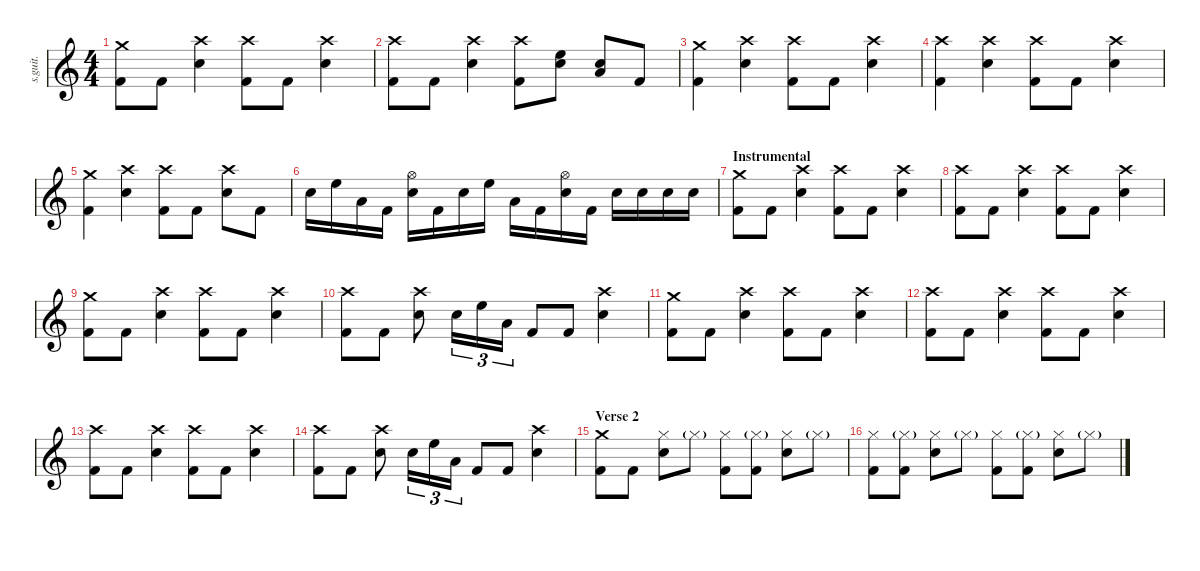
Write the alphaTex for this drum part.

\defaultSystemsLayout 4
\hideDynamics
\bracketExtendMode nobrackets
\track ("Travis" "s.guit.") {instrument percussion}
\staff {score}
\articulation defaults
\ts (4 4)
\tempo (149 hide)
\clef g2
\ks c
("Crash medium (hit)" "Kick (hit) 2").8{lyrics (0 "") lyrics (1 "") lyrics (2 "") lyrics (3 "") lyrics (4 "") dy f} "Kick (hit) 2".8{lyrics (0 "") lyrics (1 "") lyrics (2 "") lyrics (3 "") lyrics (4 "")} ("Crash high (hit)" "Snare (hit) 2").4{lyrics (0 "") lyrics (1 "") lyrics (2 "") lyrics (3 "") lyrics (4 "")} ("Crash high (hit)" "Kick (hit) 2").8{lyrics (0 "") lyrics (1 "") lyrics (2 "") lyrics (3 "") lyrics (4 "")} "Kick (hit) 2".8{lyrics (0 "") lyrics (1 "") lyrics (2 "") lyrics (3 "") lyrics (4 "")} ("Crash high (hit)" "Snare (hit) 2").4{lyrics (0 "") lyrics (1 "") lyrics (2 "") lyrics (3 "") lyrics (4 "")} |
("Crash high (hit)" "Kick (hit) 2").8{lyrics (0 "") lyrics (1 "") lyrics (2 "") lyrics (3 "") lyrics (4 "")} "Kick (hit) 2".8{lyrics (0 "") lyrics (1 "") lyrics (2 "") lyrics (3 "") lyrics (4 "")} ("Crash high (hit)" "Snare (hit) 2").4{lyrics (0 "") lyrics (1 "") lyrics (2 "") lyrics (3 "") lyrics (4 "")} ("Crash high (hit)" "Kick (hit) 2").8{lyrics (0 "") lyrics (1 "") lyrics (2 "") lyrics (3 "") lyrics (4 "")} ("High Floor Tom (hit)" "Snare (hit) 2").8{lyrics (0 "") lyrics (1 "") lyrics (2 "") lyrics (3 "") lyrics (4 "")} ("Snare (hit) 2" "Low Tom (hit)").8{lyrics (0 "") lyrics (1 "") lyrics (2 "") lyrics (3 "") lyrics (4 "")} "Kick (hit) 2".8{lyrics (0 "") lyrics (1 "") lyrics (2 "") lyrics (3 "") lyrics (4 "")} |
("Crash medium (hit)" "Kick (hit) 2").4{lyrics (0 "") lyrics (1 "") lyrics (2 "") lyrics (3 "") lyrics (4 "")} ("Crash high (hit)" "Snare (hit) 2").4{lyrics (0 "") lyrics (1 "") lyrics (2 "") lyrics (3 "") lyrics (4 "")} ("Crash high (hit)" "Kick (hit) 2").8{lyrics (0 "") lyrics (1 "") lyrics (2 "") lyrics (3 "") lyrics (4 "")} "Kick (hit) 2".8{lyrics (0 "") lyrics (1 "") lyrics (2 "") lyrics (3 "") lyrics (4 "")} ("Crash high (hit)" "Snare (hit) 2").4{lyrics (0 "") lyrics (1 "") lyrics (2 "") lyrics (3 "") lyrics (4 "")} |
("Crash high (hit)" "Kick (hit) 2").4{lyrics (0 "") lyrics (1 "") lyrics (2 "") lyrics (3 "") lyrics (4 "")} ("Crash high (hit)" "Snare (hit) 2").4{lyrics (0 "") lyrics (1 "") lyrics (2 "") lyrics (3 "") lyrics (4 "")} ("Crash high (hit)" "Kick (hit) 2").8{lyrics (0 "") lyrics (1 "") lyrics (2 "") lyrics (3 "") lyrics (4 "")} "Kick (hit) 2".8{lyrics (0 "") lyrics (1 "") lyrics (2 "") lyrics (3 "") lyrics (4 "")} ("Crash high (hit)" "Snare (hit) 2").4{lyrics (0 "") lyrics (1 "") lyrics (2 "") lyrics (3 "") lyrics (4 "")} |
("Crash medium (hit)" "Kick (hit) 2").4{lyrics (0 "") lyrics (1 "") lyrics (2 "") lyrics (3 "") lyrics (4 "")} ("Crash high (hit)" "Snare (hit) 2").4{lyrics (0 "") lyrics (1 "") lyrics (2 "") lyrics (3 "") lyrics (4 "")} ("Crash high (hit)" "Kick (hit) 2").8{lyrics (0 "") lyrics (1 "") lyrics (2 "") lyrics (3 "") lyrics (4 "")} "Kick (hit) 2".8{lyrics (0 "") lyrics (1 "") lyrics (2 "") lyrics (3 "") lyrics (4 "")} ("Crash high (hit)" "Snare (hit) 2").8{lyrics (0 "") lyrics (1 "") lyrics (2 "") lyrics (3 "") lyrics (4 "")} "Kick (hit) 2".8{lyrics (0 "") lyrics (1 "") lyrics (2 "") lyrics (3 "") lyrics (4 "")} |
"Snare (hit) 2".16{lyrics (0 "") lyrics (1 "") lyrics (2 "") lyrics (3 "") lyrics (4 "")} "High Floor Tom (hit)".16{lyrics (0 "") lyrics (1 "") lyrics (2 "") lyrics (3 "") lyrics (4 "")} "Low Tom (hit)".16{lyrics (0 "") lyrics (1 "") lyrics (2 "") lyrics (3 "") lyrics (4 "")} "Kick (hit) 2".16{lyrics (0 "") lyrics (1 "") lyrics (2 "") lyrics (3 "") lyrics (4 "")} ("Hi-Hat (open)" "Snare (hit) 2").16{lyrics (0 "") lyrics (1 "") lyrics (2 "") lyrics (3 "") lyrics (4 "")} "Kick (hit) 2".16{lyrics (0 "") lyrics (1 "") lyrics (2 "") lyrics (3 "") lyrics (4 "")} "Snare (hit) 2".16{lyrics (0 "") lyrics (1 "") lyrics (2 "") lyrics (3 "") lyrics (4 "")} "High Floor Tom (hit)".16{lyrics (0 "") lyrics (1 "") lyrics (2 "") lyrics (3 "") lyrics (4 "")} "Low Tom (hit)".16{lyrics (0 "") lyrics (1 "") lyrics (2 "") lyrics (3 "") lyrics (4 "")} "Kick (hit) 2".16{lyrics (0 "") lyrics (1 "") lyrics (2 "") lyrics (3 "") lyrics (4 "")} ("Hi-Hat (open)" "Snare (hit) 2").16{lyrics (0 "") lyrics (1 "") lyrics (2 "") lyrics (3 "") lyrics (4 "")} "Kick (hit) 2".16{lyrics (0 "") lyrics (1 "") lyrics (2 "") lyrics (3 "") lyrics (4 "")} "Snare (hit) 2".16{lyrics (0 "") lyrics (1 "") lyrics (2 "") lyrics (3 "") lyrics (4 "")} "Snare (hit) 2".16{lyrics (0 "") lyrics (1 "") lyrics (2 "") lyrics (3 "") lyrics (4 "")} "Snare (hit) 2".16{lyrics (0 "") lyrics (1 "") lyrics (2 "") lyrics (3 "") lyrics (4 "")} "Snare (hit) 2".16{lyrics (0 "") lyrics (1 "") lyrics (2 "") lyrics (3 "") lyrics (4 "")} |
\section ("" "Instrumental")
("Crash medium (hit)" "Kick (hit) 2").8{lyrics (0 "") lyrics (1 "") lyrics (2 "") lyrics (3 "") lyrics (4 "")} "Kick (hit) 2".8{lyrics (0 "") lyrics (1 "") lyrics (2 "") lyrics (3 "") lyrics (4 "")} ("Crash high (hit)" "Snare (hit) 2").4{lyrics (0 "") lyrics (1 "") lyrics (2 "") lyrics (3 "") lyrics (4 "")} ("Crash high (hit)" "Kick (hit) 2").8{lyrics (0 "") lyrics (1 "") lyrics (2 "") lyrics (3 "") lyrics (4 "")} "Kick (hit) 2".8{lyrics (0 "") lyrics (1 "") lyrics (2 "") lyrics (3 "") lyrics (4 "")} ("Crash high (hit)" "Snare (hit) 2").4{lyrics (0 "") lyrics (1 "") lyrics (2 "") lyrics (3 "") lyrics (4 "")} |
("Crash high (hit)" "Kick (hit) 2").8{lyrics (0 "") lyrics (1 "") lyrics (2 "") lyrics (3 "") lyrics (4 "")} "Kick (hit) 2".8{lyrics (0 "") lyrics (1 "") lyrics (2 "") lyrics (3 "") lyrics (4 "")} ("Crash high (hit)" "Snare (hit) 2").4{lyrics (0 "") lyrics (1 "") lyrics (2 "") lyrics (3 "") lyrics (4 "")} ("Crash high (hit)" "Kick (hit) 2").8{lyrics (0 "") lyrics (1 "") lyrics (2 "") lyrics (3 "") lyrics (4 "")} "Kick (hit) 2".8{lyrics (0 "") lyrics (1 "") lyrics (2 "") lyrics (3 "") lyrics (4 "")} ("Crash high (hit)" "Snare (hit) 2").4{lyrics (0 "") lyrics (1 "") lyrics (2 "") lyrics (3 "") lyrics (4 "")} |
("Crash medium (hit)" "Kick (hit) 2").8{lyrics (0 "") lyrics (1 "") lyrics (2 "") lyrics (3 "") lyrics (4 "")} "Kick (hit) 2".8{lyrics (0 "") lyrics (1 "") lyrics (2 "") lyrics (3 "") lyrics (4 "")} ("Crash high (hit)" "Snare (hit) 2").4{lyrics (0 "") lyrics (1 "") lyrics (2 "") lyrics (3 "") lyrics (4 "")} ("Crash high (hit)" "Kick (hit) 2").8{lyrics (0 "") lyrics (1 "") lyrics (2 "") lyrics (3 "") lyrics (4 "")} "Kick (hit) 2".8{lyrics (0 "") lyrics (1 "") lyrics (2 "") lyrics (3 "") lyrics (4 "")} ("Crash high (hit)" "Snare (hit) 2").4{lyrics (0 "") lyrics (1 "") lyrics (2 "") lyrics (3 "") lyrics (4 "")} |
("Crash high (hit)" "Kick (hit) 2").8{lyrics (0 "") lyrics (1 "") lyrics (2 "") lyrics (3 "") lyrics (4 "")} "Kick (hit) 2".8{lyrics (0 "") lyrics (1 "") lyrics (2 "") lyrics (3 "") lyrics (4 "")} ("Crash high (hit)" "Snare (hit) 2").8{lyrics (0 "") lyrics (1 "") lyrics (2 "") lyrics (3 "") lyrics (4 "")} "Snare (hit) 2".16{tu (3 2) lyrics (0 "") lyrics (1 "") lyrics (2 "") lyrics (3 "") lyrics (4 "")} "High Floor Tom (hit)".16{tu (3 2) lyrics (0 "") lyrics (1 "") lyrics (2 "") lyrics (3 "") lyrics (4 "")} "Low Tom (hit)".16{tu (3 2) lyrics (0 "") lyrics (1 "") lyrics (2 "") lyrics (3 "") lyrics (4 "")} "Kick (hit) 2".8{lyrics (0 "") lyrics (1 "") lyrics (2 "") lyrics (3 "") lyrics (4 "")} "Kick (hit) 2".8{lyrics (0 "") lyrics (1 "") lyrics (2 "") lyrics (3 "") lyrics (4 "")} ("Crash high (hit)" "Snare (hit) 2").4{lyrics (0 "") lyrics (1 "") lyrics (2 "") lyrics (3 "") lyrics (4 "")} |
("Crash medium (hit)" "Kick (hit) 2").8{lyrics (0 "") lyrics (1 "") lyrics (2 "") lyrics (3 "") lyrics (4 "")} "Kick (hit) 2".8{lyrics (0 "") lyrics (1 "") lyrics (2 "") lyrics (3 "") lyrics (4 "")} ("Crash high (hit)" "Snare (hit) 2").4{lyrics (0 "") lyrics (1 "") lyrics (2 "") lyrics (3 "") lyrics (4 "")} ("Crash high (hit)" "Kick (hit) 2").8{lyrics (0 "") lyrics (1 "") lyrics (2 "") lyrics (3 "") lyrics (4 "")} "Kick (hit) 2".8{lyrics (0 "") lyrics (1 "") lyrics (2 "") lyrics (3 "") lyrics (4 "")} ("Crash high (hit)" "Snare (hit) 2").4{lyrics (0 "") lyrics (1 "") lyrics (2 "") lyrics (3 "") lyrics (4 "")} |
("Crash high (hit)" "Kick (hit) 2").8{lyrics (0 "") lyrics (1 "") lyrics (2 "") lyrics (3 "") lyrics (4 "")} "Kick (hit) 2".8{lyrics (0 "") lyrics (1 "") lyrics (2 "") lyrics (3 "") lyrics (4 "")} ("Crash high (hit)" "Snare (hit) 2").4{lyrics (0 "") lyrics (1 "") lyrics (2 "") lyrics (3 "") lyrics (4 "")} ("Crash high (hit)" "Kick (hit) 2").8{lyrics (0 "") lyrics (1 "") lyrics (2 "") lyrics (3 "") lyrics (4 "")} "Kick (hit) 2".8{lyrics (0 "") lyrics (1 "") lyrics (2 "") lyrics (3 "") lyrics (4 "")} ("Crash high (hit)" "Snare (hit) 2").4{lyrics (0 "") lyrics (1 "") lyrics (2 "") lyrics (3 "") lyrics (4 "")} |
("Crash high (hit)" "Kick (hit) 2").8{lyrics (0 "") lyrics (1 "") lyrics (2 "") lyrics (3 "") lyrics (4 "")} "Kick (hit) 2".8{lyrics (0 "") lyrics (1 "") lyrics (2 "") lyrics (3 "") lyrics (4 "")} ("Crash high (hit)" "Snare (hit) 2").4{lyrics (0 "") lyrics (1 "") lyrics (2 "") lyrics (3 "") lyrics (4 "")} ("Crash high (hit)" "Kick (hit) 2").8{lyrics (0 "") lyrics (1 "") lyrics (2 "") lyrics (3 "") lyrics (4 "")} "Kick (hit) 2".8{lyrics (0 "") lyrics (1 "") lyrics (2 "") lyrics (3 "") lyrics (4 "")} ("Crash high (hit)" "Snare (hit) 2").4{lyrics (0 "") lyrics (1 "") lyrics (2 "") lyrics (3 "") lyrics (4 "")} |
("Crash high (hit)" "Kick (hit) 2").8{lyrics (0 "") lyrics (1 "") lyrics (2 "") lyrics (3 "") lyrics (4 "")} "Kick (hit) 2".8{lyrics (0 "") lyrics (1 "") lyrics (2 "") lyrics (3 "") lyrics (4 "")} ("Crash high (hit)" "Snare (hit) 2").8{lyrics (0 "") lyrics (1 "") lyrics (2 "") lyrics (3 "") lyrics (4 "")} "Snare (hit) 2".16{tu (3 2) lyrics (0 "") lyrics (1 "") lyrics (2 "") lyrics (3 "") lyrics (4 "")} "High Floor Tom (hit)".16{tu (3 2) lyrics (0 "") lyrics (1 "") lyrics (2 "") lyrics (3 "") lyrics (4 "")} "Low Tom (hit)".16{tu (3 2) lyrics (0 "") lyrics (1 "") lyrics (2 "") lyrics (3 "") lyrics (4 "")} "Kick (hit) 2".8{lyrics (0 "") lyrics (1 "") lyrics (2 "") lyrics (3 "") lyrics (4 "")} "Kick (hit) 2".8{lyrics (0 "") lyrics (1 "") lyrics (2 "") lyrics (3 "") lyrics (4 "")} ("Crash high (hit)" "Snare (hit) 2").4{lyrics (0 "") lyrics (1 "") lyrics (2 "") lyrics (3 "") lyrics (4 "")} |
\section ("" "Verse 2")
("Crash medium (hit)" "Kick (hit) 2").8{lyrics (0 "") lyrics (1 "") lyrics (2 "") lyrics (3 "") lyrics (4 "")} "Kick (hit) 2".8{lyrics (0 "") lyrics (1 "") lyrics (2 "") lyrics (3 "") lyrics (4 "")} ("Hi-Hat (closed)" "Snare (hit) 2").8{lyrics (0 "") lyrics (1 "") lyrics (2 "") lyrics (3 "") lyrics (4 "")} "Hi-Hat (closed)"{g}.8{lyrics (0 "") lyrics (1 "") lyrics (2 "") lyrics (3 "") lyrics (4 "") dy mp} ("Hi-Hat (closed)" "Kick (hit) 2").8{lyrics (0 "") lyrics (1 "") lyrics (2 "") lyrics (3 "") lyrics (4 "") dy f} ("Hi-Hat (closed)"{g} "Kick (hit) 2").8{lyrics (0 "") lyrics (1 "") lyrics (2 "") lyrics (3 "") lyrics (4 "")} ("Hi-Hat (closed)" "Snare (hit) 2").8{lyrics (0 "") lyrics (1 "") lyrics (2 "") lyrics (3 "") lyrics (4 "")} "Hi-Hat (closed)"{g}.8{lyrics (0 "") lyrics (1 "") lyrics (2 "") lyrics (3 "") lyrics (4 "") dy mp} |
("Hi-Hat (closed)" "Kick (hit) 2").8{lyrics (0 "") lyrics (1 "") lyrics (2 "") lyrics (3 "") lyrics (4 "") dy f} ("Hi-Hat (closed)"{g} "Kick (hit) 2").8{lyrics (0 "") lyrics (1 "") lyrics (2 "") lyrics (3 "") lyrics (4 "")} ("Hi-Hat (closed)" "Snare (hit) 2").8{lyrics (0 "") lyrics (1 "") lyrics (2 "") lyrics (3 "") lyrics (4 "")} "Hi-Hat (closed)"{g}.8{lyrics (0 "") lyrics (1 "") lyrics (2 "") lyrics (3 "") lyrics (4 "") dy mp} ("Hi-Hat (closed)" "Kick (hit) 2").8{lyrics (0 "") lyrics (1 "") lyrics (2 "") lyrics (3 "") lyrics (4 "") dy f} ("Hi-Hat (closed)"{g} "Kick (hit) 2").8{lyrics (0 "") lyrics (1 "") lyrics (2 "") lyrics (3 "") lyrics (4 "")} ("Hi-Hat (closed)" "Snare (hit) 2").8{lyrics (0 "") lyrics (1 "") lyrics (2 "") lyrics (3 "") lyrics (4 "")} "Hi-Hat (closed)"{g}.8{lyrics (0 "") lyrics (1 "") lyrics (2 "") lyrics (3 "") lyrics (4 "") dy mp}
